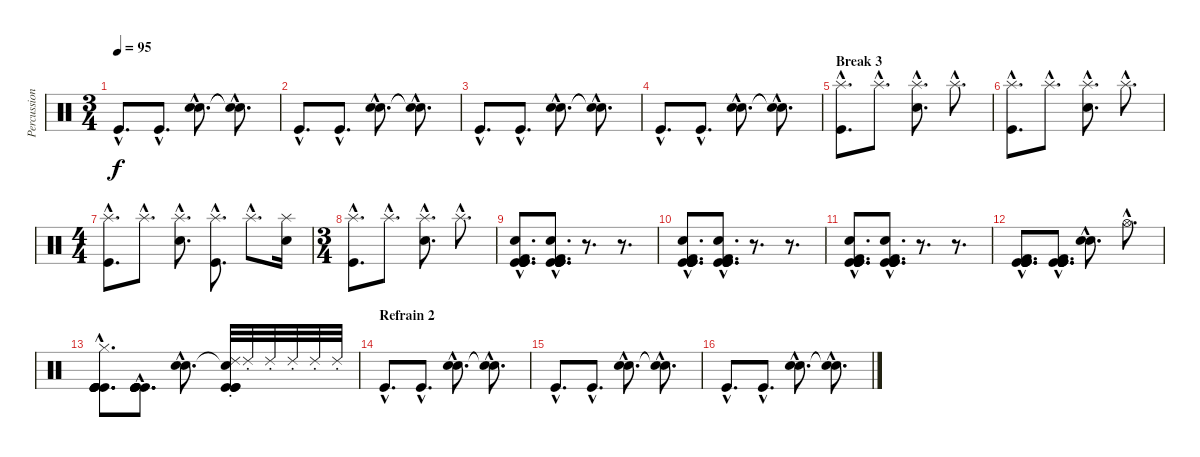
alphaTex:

\track ("Percussions " "Percussion") {instrument percussion}
\staff {score}
\articulation defaults
\ts (3 4)
\tempo 95
\clef neutral
\ks c "Kick (hit)"{hac}.8{d dy f volume 16} "Kick (hit)"{hac}.8{d}
("Electric Snare (hit)"{hac} "Hand Clap (hit)"{hac}).8{d} ("Snare (hit)"{hac t} "Snare (hit)"{hac t}).8{d} |
"Kick (hit)"{hac}.8{d volume 14} "Kick (hit)"{hac}.8{d} ("Electric Snare (hit)"{hac} "Hand Clap (hit)"{hac}).8{d} ("Snare (hit)"{hac t} "Snare (hit)"{hac t}).8{d} |
"Kick (hit)"{hac}.8{d volume 16} "Kick (hit)"{hac}.8{d} ("Electric Snare (hit)"{hac} "Hand Clap (hit)"{hac}).8{d} ("Snare (hit)"{hac t} "Snare (hit)"{hac t}).8{d} |
"Kick (hit)"{hac}.8{d volume 14} "Kick (hit)"{hac}.8{d} ("Electric Snare (hit)"{hac} "Hand Clap (hit)"{hac}).8{d} ("Snare (hit)"{hac t} "Snare (hit)"{hac t}).8{d} |
\section ("" "Break 3")
("Splash (hit)"{hac} "Kick (hit)"{hac}).8{d} "Splash (hit)"{hac}.8{d} ("Splash (hit)"{hac} "Electric Snare (hit)"{hac}).8{d} "Splash (hit)"{hac}.8{d} |
("Splash (hit)"{hac} "Kick (hit)"{hac}).8{d} "Splash (hit)"{hac}.8{d} ("Splash (hit)"{hac} "Electric Snare (hit)"{hac}).8{d} "Splash (hit)"{hac}.8{d} |
\ts (4 4)
("Splash (hit)"{hac} "Kick (hit)"{hac}).8{d} "Splash (hit)"{hac}.8{d} ("Electric Snare (hit)"{hac} "Splash (hit)"{hac}).8{d} ("Splash (hit)"{hac} "Kick (hit)"{hac}).8{d} "Splash (hit)"{hac}.8{d} ("Splash (hit)" "Electric Snare (hit)").16 |
\ts (3 4)
("Splash (hit)"{hac} "Kick (hit)"{hac}).8{d} "Splash (hit)"{hac}.8{d} ("Splash (hit)"{hac} "Electric Snare (hit)"{hac}).8{d} "Splash (hit)"{hac}.8{d} |
("Kick (hit)"{hac} "Kick (hit) 2"{hac} "Electric Snare (hit)"{hac} "Kick (hit)"{hac} "Kick (hit)"{hac} "Kick (hit)"{hac}).8{d} ("Kick (hit)"{hac} "Kick (hit) 2"{hac} "Electric Snare (hit)"{hac} "Kick (hit)"{hac} "Kick (hit)"{hac} "Kick (hit)"{hac}).8{d} r.8{d} r.8{d} |
("Kick (hit)"{hac} "Kick (hit) 2"{hac} "Electric Snare (hit)"{hac} "Kick (hit)"{hac} "Kick (hit)"{hac} "Kick (hit)"{hac}).8{d} ("Kick (hit)"{hac} "Kick (hit) 2"{hac} "Electric Snare (hit)"{hac} "Kick (hit)"{hac} "Kick (hit)"{hac} "Kick (hit)"{hac}).8{d} r.8{d} r.8{d} |
("Kick (hit)"{hac} "Kick (hit) 2"{hac} "Electric Snare (hit)"{hac} "Kick (hit)"{hac} "Kick (hit)"{hac} "Kick (hit)"{hac}).8{d} ("Kick (hit)"{hac} "Kick (hit) 2"{hac} "Electric Snare (hit)"{hac} "Kick (hit)"{hac} "Kick (hit)"{hac} "Kick (hit)"{hac}).8{d} r.8{d} r.8{d} |
("Kick (hit)"{hac} "Kick (hit) 2"{hac} "Kick (hit)"{hac} "Kick (hit)"{hac} "Kick (hit)"{hac} "Kick (hit)"{hac}).8{d} ("Kick (hit)"{hac} "Kick (hit) 2"{hac} "Kick (hit)"{hac} "Kick (hit)"{hac} "Kick (hit)"{hac} "Kick (hit)"{hac}).8{d} ("Electric Snare (hit)"{hac} "Electric Snare (hit)"{hac}).8{d} "Hi-Hat (open)"{hac}.8{d} |
("Hi-Hat (closed)"{hac} "Kick (hit)"{hac} "Kick (hit)"{hac} "Kick (hit)"{hac} "Kick (hit)"{hac} "Kick (hit)"{hac}).8{d} ("Kick (hit)"{hac} "Kick (hit)"{hac} "Kick (hit)"{hac} "Kick (hit)"{hac} "Kick (hit)"{hac}).8{d} ("Electric Snare (hit)"{hac} "Electric Snare (hit)"{hac}).8{d} ("Snare (hit)"{t} "Ride (choke) 2" "Kick (hit)" "Kick (hit)" "Kick (hit)").32 "Ride (choke) 2".32 "Ride (choke) 2".32 "Ride (choke) 2".32 "Ride (choke) 2".32 "Ride (choke) 2".32 |
\section ("" "Refrain 2")
"Kick (hit)"{hac}.8{d volume 16} "Kick (hit)"{hac}.8{d} ("Electric Snare (hit)"{hac} "Hand Clap (hit)"{hac}).8{d} ("Snare (hit)"{hac t} "Snare (hit)"{hac t}).8{d} |
"Kick (hit)"{hac}.8{d volume 14} "Kick (hit)"{hac}.8{d} ("Electric Snare (hit)"{hac} "Hand Clap (hit)"{hac}).8{d} ("Snare (hit)"{hac t} "Snare (hit)"{hac t}).8{d} |
"Kick (hit)"{hac}.8{d volume 16} "Kick (hit)"{hac}.8{d} ("Electric Snare (hit)"{hac} "Hand Clap (hit)"{hac}).8{d} ("Snare (hit)"{hac t} "Snare (hit)"{hac t}).8{d}
